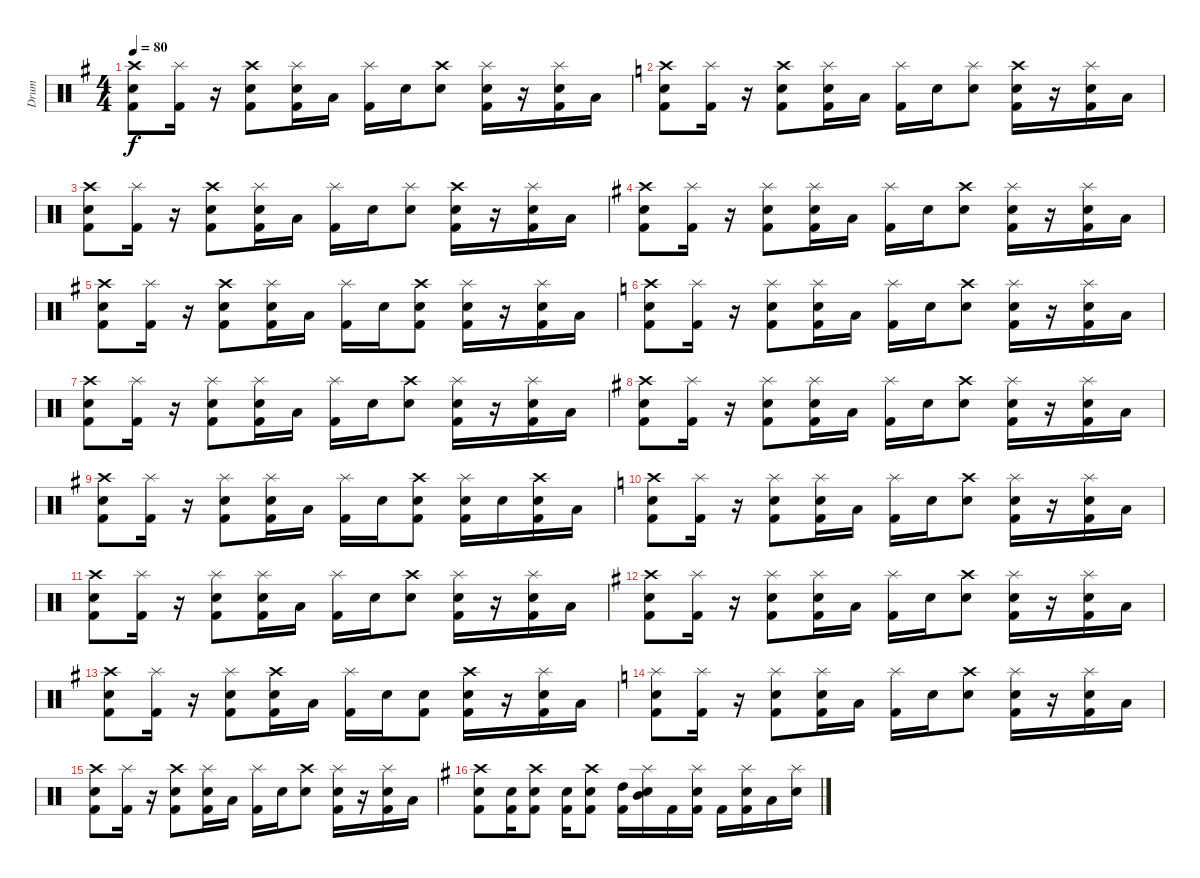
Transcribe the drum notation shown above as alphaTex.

\track ("Drum" "Drum") {instrument percussion}
\staff {score}
\articulation defaults
\ts (4 4)
\tempo 80
\clef neutral
\ks eminor
("Electric Snare (hit)" "Kick (hit) 2" "Crash high (hit)").8{dy f} ("Kick (hit) 2" "Splash (hit)").16 r.16 ("Electric Snare (hit)" "Kick (hit) 2" "Crash high (hit)").8 ("Electric Snare (hit)" "Kick (hit) 2" "Splash (hit)").16 "Low Tom (hit)".16 ("Kick (hit) 2" "Splash (hit)").16 "Electric Snare (hit)".16 ("Electric Snare (hit)" "Crash high (hit)").8 ("Electric Snare (hit)" "Kick (hit) 2" "Splash (hit)").16 r.16 ("Electric Snare (hit)" "Kick (hit) 2" "Splash (hit)").16 "Low Tom (hit)".16 |
\ks c
("Electric Snare (hit)" "Kick (hit) 2" "Crash high (hit)").8 ("Kick (hit) 2" "Splash (hit)").16 r.16 ("Electric Snare (hit)" "Kick (hit) 2" "Crash high (hit)").8 ("Electric Snare (hit)" "Kick (hit) 2" "Splash (hit)").16 "Low Tom (hit)".16 ("Kick (hit) 2" "Splash (hit)").16 "Electric Snare (hit)".16 ("Electric Snare (hit)" "Splash (hit)").8 ("Electric Snare (hit)" "Kick (hit) 2" "Crash high (hit)").16 r.16 ("Electric Snare (hit)" "Kick (hit) 2" "Splash (hit)").16 "Low Tom (hit)".16 |
("Electric Snare (hit)" "Kick (hit) 2" "Crash high (hit)").8 ("Kick (hit) 2" "Splash (hit)").16 r.16 ("Electric Snare (hit)" "Kick (hit) 2" "Crash high (hit)").8 ("Electric Snare (hit)" "Kick (hit) 2" "Splash (hit)").16 "Low Tom (hit)".16 ("Kick (hit) 2" "Splash (hit)").16 "Electric Snare (hit)".16 ("Electric Snare (hit)" "Splash (hit)").8 ("Electric Snare (hit)" "Kick (hit) 2" "Crash high (hit)").16 r.16 ("Electric Snare (hit)" "Kick (hit) 2" "Splash (hit)").16 "Low Tom (hit)".16 |
\ks eminor
("Electric Snare (hit)" "Kick (hit) 2" "Crash high (hit)").8 ("Kick (hit) 2" "Splash (hit)").16 r.16 ("Electric Snare (hit)" "Kick (hit) 2" "Splash (hit)").8 ("Electric Snare (hit)" "Kick (hit) 2" "Splash (hit)").16 "Low Tom (hit)".16 ("Kick (hit) 2" "Splash (hit)").16 "Electric Snare (hit)".16 ("Electric Snare (hit)" "Crash high (hit)").8 ("Electric Snare (hit)" "Kick (hit) 2" "Splash (hit)").16 r.16 ("Electric Snare (hit)" "Kick (hit) 2" "Splash (hit)").16 "Low Tom (hit)".16 |
("Electric Snare (hit)" "Kick (hit) 2" "Crash high (hit)").8 ("Kick (hit) 2" "Splash (hit)").16 r.16 ("Electric Snare (hit)" "Kick (hit) 2" "Crash high (hit)").8 ("Electric Snare (hit)" "Kick (hit) 2" "Splash (hit)").16 "Low Tom (hit)".16 ("Kick (hit) 2" "Splash (hit)").16 "Electric Snare (hit)".16 ("Electric Snare (hit)" "Kick (hit) 2" "Crash high (hit)").8 ("Electric Snare (hit)" "Kick (hit) 2" "Splash (hit)").16 r.16 ("Electric Snare (hit)" "Kick (hit) 2" "Splash (hit)").16 "Low Tom (hit)".16 |
\ks c
("Electric Snare (hit)" "Kick (hit) 2" "Crash high (hit)").8 ("Kick (hit) 2" "Splash (hit)").16 r.16 ("Electric Snare (hit)" "Kick (hit) 2" "Splash (hit)").8 ("Electric Snare (hit)" "Kick (hit) 2" "Splash (hit)").16 "Low Tom (hit)".16 ("Kick (hit) 2" "Splash (hit)").16 "Electric Snare (hit)".16 ("Electric Snare (hit)" "Crash high (hit)").8 ("Electric Snare (hit)" "Kick (hit) 2" "Splash (hit)").16 r.16 ("Electric Snare (hit)" "Kick (hit) 2" "Splash (hit)").16 "Low Tom (hit)".16 |
("Electric Snare (hit)" "Kick (hit) 2" "Crash high (hit)").8 ("Kick (hit) 2" "Splash (hit)").16 r.16 ("Electric Snare (hit)" "Kick (hit) 2" "Splash (hit)").8 ("Electric Snare (hit)" "Kick (hit) 2" "Splash (hit)").16 "Low Tom (hit)".16 ("Kick (hit) 2" "Splash (hit)").16 "Electric Snare (hit)".16 ("Electric Snare (hit)" "Crash high (hit)").8 ("Electric Snare (hit)" "Kick (hit) 2" "Splash (hit)").16 r.16 ("Electric Snare (hit)" "Kick (hit) 2" "Splash (hit)").16 "Low Tom (hit)".16 |
\ks eminor
("Electric Snare (hit)" "Kick (hit) 2" "Crash high (hit)").8 ("Kick (hit) 2" "Splash (hit)").16 r.16 ("Electric Snare (hit)" "Kick (hit) 2" "Splash (hit)").8 ("Electric Snare (hit)" "Kick (hit) 2" "Splash (hit)").16 "Low Tom (hit)".16 ("Kick (hit) 2" "Splash (hit)").16 "Electric Snare (hit)".16 ("Electric Snare (hit)" "Crash high (hit)").8 ("Electric Snare (hit)" "Kick (hit) 2" "Splash (hit)").16 r.16 ("Electric Snare (hit)" "Kick (hit) 2" "Splash (hit)").16 "Low Tom (hit)".16 |
("Electric Snare (hit)" "Kick (hit) 2" "Crash high (hit)").8 ("Kick (hit) 2" "Splash (hit)").16 r.16 ("Electric Snare (hit)" "Kick (hit) 2" "Splash (hit)").8 ("Electric Snare (hit)" "Kick (hit) 2" "Splash (hit)").16 "Low Tom (hit)".16 ("Kick (hit) 2" "Splash (hit)").16 "Electric Snare (hit)".16 ("Electric Snare (hit)" "Kick (hit) 2" "Crash high (hit)").8 ("Electric Snare (hit)" "Kick (hit) 2" "Splash (hit)").16 "Electric Snare (hit)".16 ("Electric Snare (hit)" "Kick (hit) 2" "Crash high (hit)").16 "Low Tom (hit)".16 |
\ks c
("Electric Snare (hit)" "Kick (hit) 2" "Crash high (hit)").8 ("Kick (hit) 2" "Splash (hit)").16 r.16 ("Electric Snare (hit)" "Kick (hit) 2" "Splash (hit)").8 ("Electric Snare (hit)" "Kick (hit) 2" "Splash (hit)").16 "Low Tom (hit)".16 ("Kick (hit) 2" "Splash (hit)").16 "Electric Snare (hit)".16 ("Electric Snare (hit)" "Crash high (hit)").8 ("Electric Snare (hit)" "Kick (hit) 2" "Splash (hit)").16 r.16 ("Electric Snare (hit)" "Kick (hit) 2" "Splash (hit)").16 "Low Tom (hit)".16 |
("Electric Snare (hit)" "Kick (hit) 2" "Crash high (hit)").8 ("Kick (hit) 2" "Splash (hit)").16 r.16 ("Electric Snare (hit)" "Kick (hit) 2" "Splash (hit)").8 ("Electric Snare (hit)" "Kick (hit) 2" "Splash (hit)").16 "Low Tom (hit)".16 ("Kick (hit) 2" "Splash (hit)").16 "Electric Snare (hit)".16 ("Electric Snare (hit)" "Crash high (hit)").8 ("Electric Snare (hit)" "Kick (hit) 2" "Splash (hit)").16 r.16 ("Electric Snare (hit)" "Kick (hit) 2" "Splash (hit)").16 "Low Tom (hit)".16 |
\ks eminor
("Electric Snare (hit)" "Kick (hit) 2" "Crash high (hit)").8 ("Kick (hit) 2" "Splash (hit)").16 r.16 ("Electric Snare (hit)" "Kick (hit) 2" "Splash (hit)").8 ("Electric Snare (hit)" "Kick (hit) 2" "Splash (hit)").16 "Low Tom (hit)".16 ("Kick (hit) 2" "Splash (hit)").16 "Electric Snare (hit)".16 ("Electric Snare (hit)" "Crash high (hit)").8 ("Electric Snare (hit)" "Kick (hit) 2" "Splash (hit)").16 r.16 ("Electric Snare (hit)" "Kick (hit) 2" "Splash (hit)").16 "Low Tom (hit)".16 |
("Electric Snare (hit)" "Kick (hit) 2" "Crash high (hit)").8 ("Kick (hit) 2" "Splash (hit)").16 r.16 ("Electric Snare (hit)" "Kick (hit) 2" "Splash (hit)").8 ("Electric Snare (hit)" "Kick (hit) 2" "Crash high (hit)").16 "Low Tom (hit)".16 ("Kick (hit) 2" "Splash (hit)").16 "Electric Snare (hit)".16 ("Electric Snare (hit)" "Kick (hit) 2").8 ("Electric Snare (hit)" "Kick (hit) 2" "Crash high (hit)").16 r.16 ("Electric Snare (hit)" "Kick (hit) 2" "Splash (hit)").16 "Low Tom (hit)".16 |
\ks c
("Electric Snare (hit)" "Kick (hit) 2" "Splash (hit)").8 ("Kick (hit) 2" "Splash (hit)").16 r.16 ("Electric Snare (hit)" "Kick (hit) 2" "Splash (hit)").8 ("Electric Snare (hit)" "Kick (hit) 2" "Splash (hit)").16 "Low Tom (hit)".16 ("Kick (hit) 2" "Splash (hit)").16 "Electric Snare (hit)".16 ("Electric Snare (hit)" "Crash high (hit)").8 ("Electric Snare (hit)" "Kick (hit) 2" "Splash (hit)").16 r.16 ("Electric Snare (hit)" "Kick (hit) 2" "Splash (hit)").16 "Low Tom (hit)".16 |
("Electric Snare (hit)" "Kick (hit) 2" "Crash high (hit)").8 ("Kick (hit) 2" "Splash (hit)").16 r.16 ("Electric Snare (hit)" "Kick (hit) 2" "Crash high (hit)").8 ("Electric Snare (hit)" "Kick (hit) 2" "Splash (hit)").16 "Low Tom (hit)".16 ("Kick (hit) 2" "Splash (hit)").16 "Electric Snare (hit)".16 ("Electric Snare (hit)" "Crash high (hit)").8 ("Electric Snare (hit)" "Kick (hit) 2" "Splash (hit)").16 r.16 ("Electric Snare (hit)" "Kick (hit) 2" "Splash (hit)").16 "Low Tom (hit)".16 |
\ks eminor
("Electric Snare (hit)" "Kick (hit) 2" "Crash high (hit)").8 ("Electric Snare (hit)" "Kick (hit) 2").16 ("Electric Snare (hit)" "Kick (hit) 2" "Crash high (hit)").8 ("Electric Snare (hit)" "Kick (hit) 2").16 ("Electric Snare (hit)" "Kick (hit) 2" "Crash high (hit)").8 ("High Tom (hit)" "Kick (hit) 2").16 ("Electric Snare (hit)" "Mid Tom (hit)" "Splash (hit)").16 "Kick (hit) 2".16 ("Electric Snare (hit)" "Kick (hit) 2" "Splash (hit)").16 "Kick (hit) 2".16 ("Electric Snare (hit)" "Kick (hit) 2" "Splash (hit)").16 "Low Tom (hit)".16 ("Electric Snare (hit)" "Splash (hit)").16
